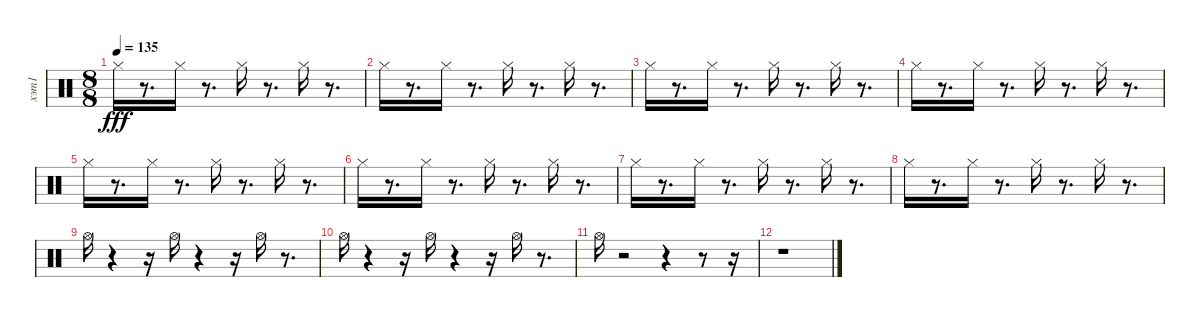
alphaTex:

\track ("хэт1" "хэт1") {instrument percussion}
\staff {score}
\articulation defaults
\ts (8 8)
\tempo 135
\clef neutral
\ks c "Hi-Hat (closed)".16{dy fff}
r.8{d} "Hi-Hat (closed)".16 r.8{d} "Hi-Hat (closed)".16 r.8{d} "Hi-Hat (closed)".16 r.8{d} |
"Hi-Hat (closed)".16 r.8{d} "Hi-Hat (closed)".16 r.8{d} "Hi-Hat (closed)".16 r.8{d} "Hi-Hat (closed)".16 r.8{d} |
"Hi-Hat (closed)".16 r.8{d} "Hi-Hat (closed)".16 r.8{d} "Hi-Hat (closed)".16 r.8{d} "Hi-Hat (closed)".16 r.8{d} |
"Hi-Hat (closed)".16 r.8{d} "Hi-Hat (closed)".16 r.8{d} "Hi-Hat (closed)".16 r.8{d} "Hi-Hat (closed)".16 r.8{d} |
"Hi-Hat (closed)".16 r.8{d} "Hi-Hat (closed)".16 r.8{d} "Hi-Hat (closed)".16 r.8{d} "Hi-Hat (closed)".16 r.8{d} |
"Hi-Hat (closed)".16 r.8{d} "Hi-Hat (closed)".16 r.8{d} "Hi-Hat (closed)".16 r.8{d} "Hi-Hat (closed)".16 r.8{d} |
"Hi-Hat (closed)".16 r.8{d} "Hi-Hat (closed)".16 r.8{d} "Hi-Hat (closed)".16 r.8{d} "Hi-Hat (closed)".16 r.8{d} |
"Hi-Hat (closed)".16 r.8{d} "Hi-Hat (closed)".16 r.8{d} "Hi-Hat (closed)".16 r.8{d} "Hi-Hat (closed)".16 r.8{d} |
"Hi-Hat (open)".16 r.4 r.16 "Hi-Hat (open)".16 r.4 r.16 "Hi-Hat (open)".16 r.8{d} |
"Hi-Hat (open)".16 r.4 r.16 "Hi-Hat (open)".16 r.4 r.16 "Hi-Hat (open)".16 r.8{d} |
"Hi-Hat (open)".16 r.2 r.4 r.8 r.16 |
r.1
